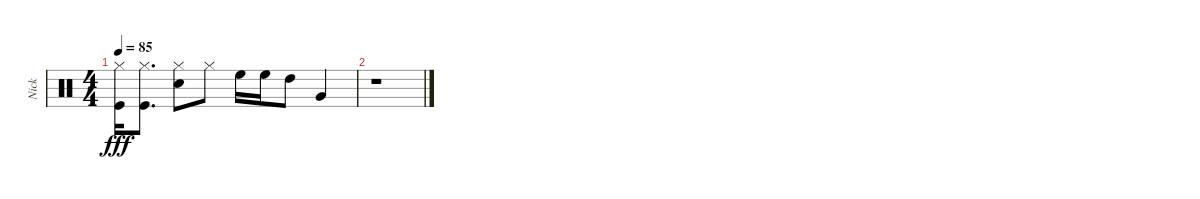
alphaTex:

\track ("Nick" "Nick") {instrument percussion}
\staff {score}
\articulation defaults
\ts (4 4)
\tempo 85
\clef neutral
\ks c
("Kick (hit)" "Hi-Hat (closed)").16{dy fff} ("Kick (hit)" "Hi-Hat (closed)").8{d} ("Hi-Hat (closed)" "Snare (hit) 2").8 "Hi-Hat (closed)".8 "High Floor Tom (hit)".16 "High Floor Tom (hit)".16 "High Tom (hit)".8 "Very Low Tom (hit)".4 |
r.1
